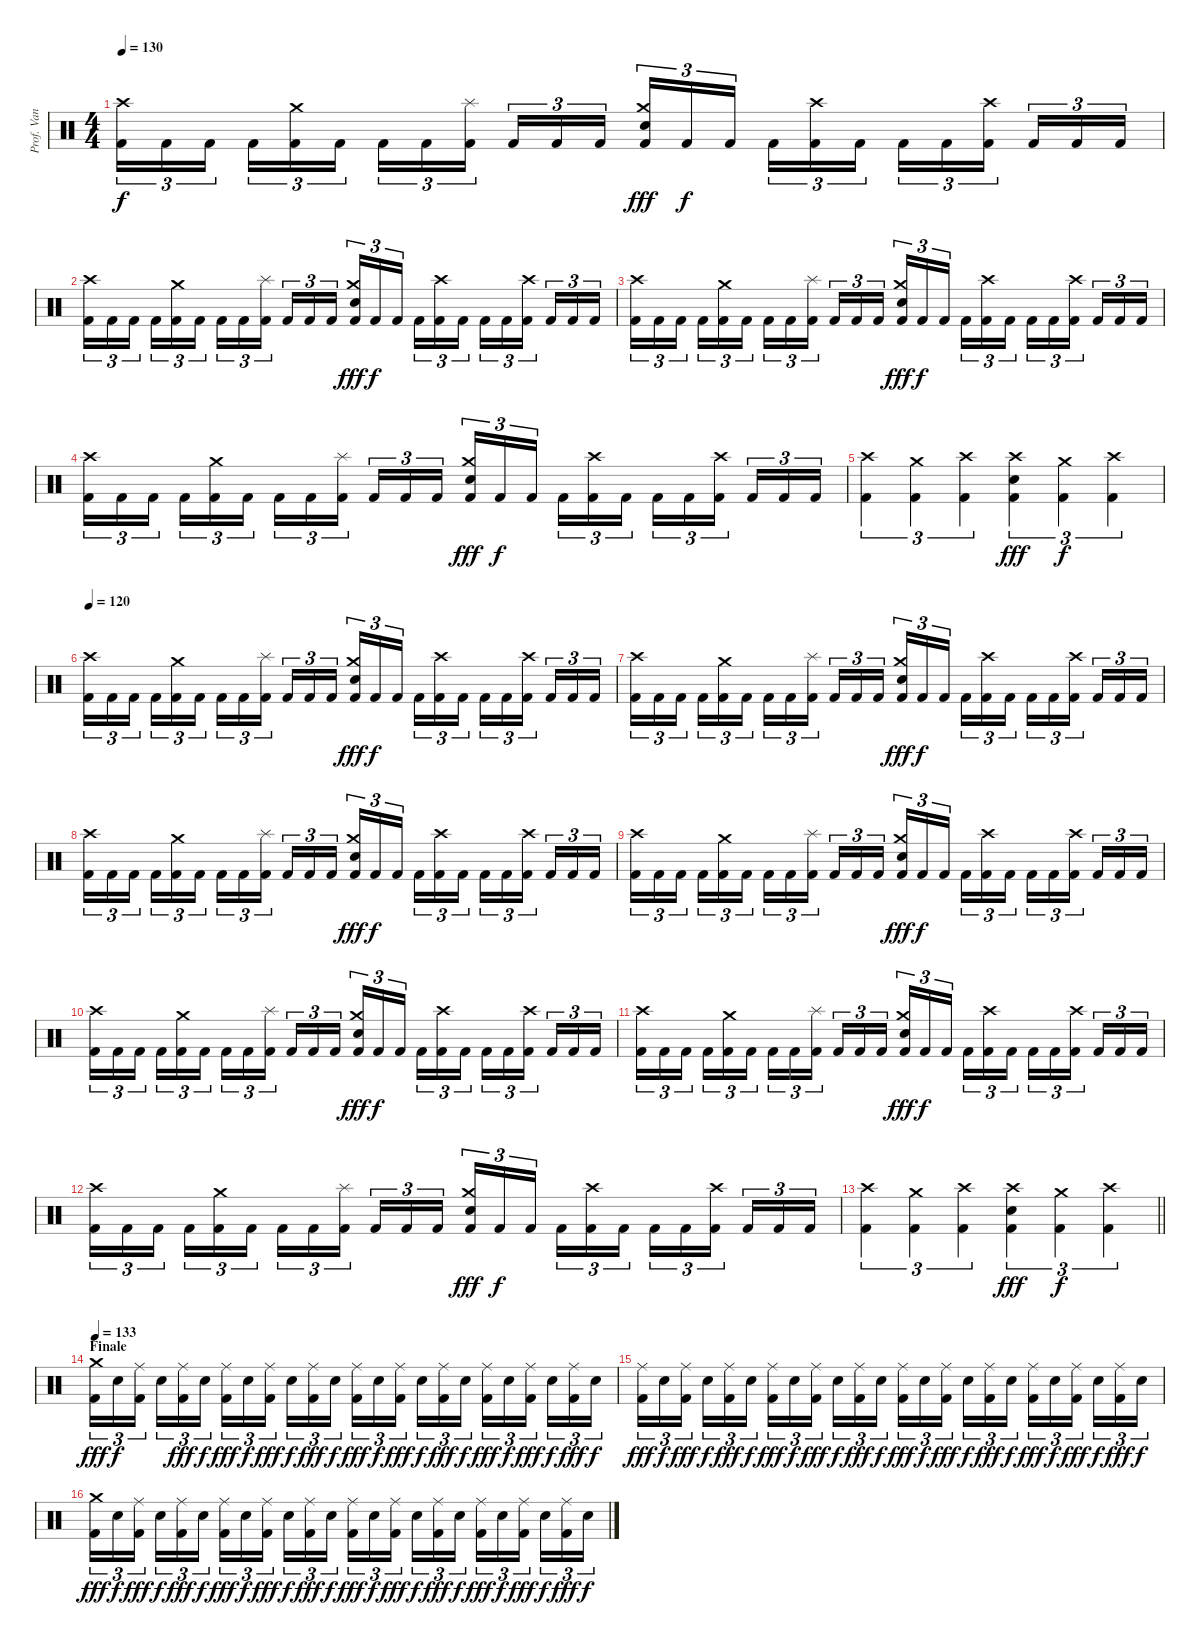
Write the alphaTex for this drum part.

\track ("Prof. Van Helsing (Drums)" "Prof. Van ") {instrument percussion}
\staff {score}
\articulation defaults
\ts (4 4)
\tempo 130
\clef neutral
\ks c
("Crash high (hit)" "Kick (hit) 2").16{tu (3 2) dy f} "Kick (hit) 2".16{tu (3 2)} "Kick (hit) 2".16{tu (3 2) beam splitsecondary} "Kick (hit) 2".16{tu (3 2)} ("Crash medium (hit)" "Kick (hit) 2").16{tu (3 2)} "Kick (hit) 2".16{tu (3 2)} "Kick (hit) 2".16{tu (3 2)} "Kick (hit) 2".16{tu (3 2)} ("Splash (hit)" "Kick (hit) 2").16{tu (3 2) beam splitsecondary} "Kick (hit) 2".16{tu (3 2)} "Kick (hit) 2".16{tu (3 2)} "Kick (hit) 2".16{tu (3 2)} ("Crash medium (hit)" "Snare (hit) 2" "Kick (hit) 2").16{tu (3 2) dy fff} "Kick (hit) 2".16{tu (3 2) dy f} "Kick (hit) 2".16{tu (3 2) beam splitsecondary} "Kick (hit) 2".16{tu (3 2)} ("Crash high (hit)" "Kick (hit) 2").16{tu (3 2)} "Kick (hit) 2".16{tu (3 2)} "Kick (hit) 2".16{tu (3 2)} "Kick (hit) 2".16{tu (3 2)} ("Crash high (hit)" "Kick (hit) 2").16{tu (3 2) beam splitsecondary} "Kick (hit) 2".16{tu (3 2)} "Kick (hit) 2".16{tu (3 2)} "Kick (hit) 2".16{tu (3 2)} |
("Crash high (hit)" "Kick (hit) 2").16{tu (3 2)} "Kick (hit) 2".16{tu (3 2)} "Kick (hit) 2".16{tu (3 2) beam splitsecondary} "Kick (hit) 2".16{tu (3 2)} ("Crash medium (hit)" "Kick (hit) 2").16{tu (3 2)} "Kick (hit) 2".16{tu (3 2)} "Kick (hit) 2".16{tu (3 2)} "Kick (hit) 2".16{tu (3 2)} ("Splash (hit)" "Kick (hit) 2").16{tu (3 2) beam splitsecondary} "Kick (hit) 2".16{tu (3 2)} "Kick (hit) 2".16{tu (3 2)} "Kick (hit) 2".16{tu (3 2)} ("Crash medium (hit)" "Snare (hit) 2" "Kick (hit) 2").16{tu (3 2) dy fff} "Kick (hit) 2".16{tu (3 2) dy f} "Kick (hit) 2".16{tu (3 2) beam splitsecondary} "Kick (hit) 2".16{tu (3 2)} ("Crash high (hit)" "Kick (hit) 2").16{tu (3 2)} "Kick (hit) 2".16{tu (3 2)} "Kick (hit) 2".16{tu (3 2)} "Kick (hit) 2".16{tu (3 2)} ("Crash high (hit)" "Kick (hit) 2").16{tu (3 2) beam splitsecondary} "Kick (hit) 2".16{tu (3 2)} "Kick (hit) 2".16{tu (3 2)} "Kick (hit) 2".16{tu (3 2)} |
("Crash high (hit)" "Kick (hit) 2").16{tu (3 2)} "Kick (hit) 2".16{tu (3 2)} "Kick (hit) 2".16{tu (3 2) beam splitsecondary} "Kick (hit) 2".16{tu (3 2)} ("Crash medium (hit)" "Kick (hit) 2").16{tu (3 2)} "Kick (hit) 2".16{tu (3 2)} "Kick (hit) 2".16{tu (3 2)} "Kick (hit) 2".16{tu (3 2)} ("Splash (hit)" "Kick (hit) 2").16{tu (3 2) beam splitsecondary} "Kick (hit) 2".16{tu (3 2)} "Kick (hit) 2".16{tu (3 2)} "Kick (hit) 2".16{tu (3 2)} ("Crash medium (hit)" "Snare (hit) 2" "Kick (hit) 2").16{tu (3 2) dy fff} "Kick (hit) 2".16{tu (3 2) dy f} "Kick (hit) 2".16{tu (3 2) beam splitsecondary} "Kick (hit) 2".16{tu (3 2)} ("Crash high (hit)" "Kick (hit) 2").16{tu (3 2)} "Kick (hit) 2".16{tu (3 2)} "Kick (hit) 2".16{tu (3 2)} "Kick (hit) 2".16{tu (3 2)} ("Crash high (hit)" "Kick (hit) 2").16{tu (3 2) beam splitsecondary} "Kick (hit) 2".16{tu (3 2)} "Kick (hit) 2".16{tu (3 2)} "Kick (hit) 2".16{tu (3 2)} |
("Crash high (hit)" "Kick (hit) 2").16{tu (3 2)} "Kick (hit) 2".16{tu (3 2)} "Kick (hit) 2".16{tu (3 2) beam splitsecondary} "Kick (hit) 2".16{tu (3 2)} ("Crash medium (hit)" "Kick (hit) 2").16{tu (3 2)} "Kick (hit) 2".16{tu (3 2)} "Kick (hit) 2".16{tu (3 2)} "Kick (hit) 2".16{tu (3 2)} ("Splash (hit)" "Kick (hit) 2").16{tu (3 2) beam splitsecondary} "Kick (hit) 2".16{tu (3 2)} "Kick (hit) 2".16{tu (3 2)} "Kick (hit) 2".16{tu (3 2)} ("Crash medium (hit)" "Snare (hit) 2" "Kick (hit) 2").16{tu (3 2) dy fff} "Kick (hit) 2".16{tu (3 2) dy f} "Kick (hit) 2".16{tu (3 2) beam splitsecondary} "Kick (hit) 2".16{tu (3 2)} ("Crash high (hit)" "Kick (hit) 2").16{tu (3 2)} "Kick (hit) 2".16{tu (3 2)} "Kick (hit) 2".16{tu (3 2)} "Kick (hit) 2".16{tu (3 2)} ("Crash high (hit)" "Kick (hit) 2").16{tu (3 2) beam splitsecondary} "Kick (hit) 2".16{tu (3 2)} "Kick (hit) 2".16{tu (3 2)} "Kick (hit) 2".16{tu (3 2)} |
("Crash high (hit)" "Kick (hit) 2").4{tu (3 2)} ("Crash medium (hit)" "Kick (hit) 2").4{tu (3 2)} ("Crash high (hit)" "Kick (hit) 2").4{tu (3 2)} ("Crash high (hit)" "Snare (hit) 2" "Kick (hit) 2").4{tu (3 2) dy fff} ("Crash medium (hit)" "Kick (hit) 2").4{tu (3 2) dy f} ("Crash high (hit)" "Kick (hit) 2").4{tu (3 2)} |
\tempo 120
("Crash high (hit)" "Kick (hit) 2").16{tu (3 2)} "Kick (hit) 2".16{tu (3 2)} "Kick (hit) 2".16{tu (3 2) beam splitsecondary} "Kick (hit) 2".16{tu (3 2)} ("Crash medium (hit)" "Kick (hit) 2").16{tu (3 2)} "Kick (hit) 2".16{tu (3 2)} "Kick (hit) 2".16{tu (3 2)} "Kick (hit) 2".16{tu (3 2)} ("Splash (hit)" "Kick (hit) 2").16{tu (3 2) beam splitsecondary} "Kick (hit) 2".16{tu (3 2)} "Kick (hit) 2".16{tu (3 2)} "Kick (hit) 2".16{tu (3 2)} ("Crash medium (hit)" "Snare (hit) 2" "Kick (hit) 2").16{tu (3 2) dy fff} "Kick (hit) 2".16{tu (3 2) dy f} "Kick (hit) 2".16{tu (3 2) beam splitsecondary} "Kick (hit) 2".16{tu (3 2)} ("Crash high (hit)" "Kick (hit) 2").16{tu (3 2)} "Kick (hit) 2".16{tu (3 2)} "Kick (hit) 2".16{tu (3 2)} "Kick (hit) 2".16{tu (3 2)} ("Crash high (hit)" "Kick (hit) 2").16{tu (3 2) beam splitsecondary} "Kick (hit) 2".16{tu (3 2)} "Kick (hit) 2".16{tu (3 2)} "Kick (hit) 2".16{tu (3 2)} |
("Crash high (hit)" "Kick (hit) 2").16{tu (3 2)} "Kick (hit) 2".16{tu (3 2)} "Kick (hit) 2".16{tu (3 2) beam splitsecondary} "Kick (hit) 2".16{tu (3 2)} ("Crash medium (hit)" "Kick (hit) 2").16{tu (3 2)} "Kick (hit) 2".16{tu (3 2)} "Kick (hit) 2".16{tu (3 2)} "Kick (hit) 2".16{tu (3 2)} ("Splash (hit)" "Kick (hit) 2").16{tu (3 2) beam splitsecondary} "Kick (hit) 2".16{tu (3 2)} "Kick (hit) 2".16{tu (3 2)} "Kick (hit) 2".16{tu (3 2)} ("Crash medium (hit)" "Snare (hit) 2" "Kick (hit) 2").16{tu (3 2) dy fff} "Kick (hit) 2".16{tu (3 2) dy f} "Kick (hit) 2".16{tu (3 2) beam splitsecondary} "Kick (hit) 2".16{tu (3 2)} ("Crash high (hit)" "Kick (hit) 2").16{tu (3 2)} "Kick (hit) 2".16{tu (3 2)} "Kick (hit) 2".16{tu (3 2)} "Kick (hit) 2".16{tu (3 2)} ("Crash high (hit)" "Kick (hit) 2").16{tu (3 2) beam splitsecondary} "Kick (hit) 2".16{tu (3 2)} "Kick (hit) 2".16{tu (3 2)} "Kick (hit) 2".16{tu (3 2)} |
("Crash high (hit)" "Kick (hit) 2").16{tu (3 2)} "Kick (hit) 2".16{tu (3 2)} "Kick (hit) 2".16{tu (3 2) beam splitsecondary} "Kick (hit) 2".16{tu (3 2)} ("Crash medium (hit)" "Kick (hit) 2").16{tu (3 2)} "Kick (hit) 2".16{tu (3 2)} "Kick (hit) 2".16{tu (3 2)} "Kick (hit) 2".16{tu (3 2)} ("Splash (hit)" "Kick (hit) 2").16{tu (3 2) beam splitsecondary} "Kick (hit) 2".16{tu (3 2)} "Kick (hit) 2".16{tu (3 2)} "Kick (hit) 2".16{tu (3 2)} ("Crash medium (hit)" "Snare (hit) 2" "Kick (hit) 2").16{tu (3 2) dy fff} "Kick (hit) 2".16{tu (3 2) dy f} "Kick (hit) 2".16{tu (3 2) beam splitsecondary} "Kick (hit) 2".16{tu (3 2)} ("Crash high (hit)" "Kick (hit) 2").16{tu (3 2)} "Kick (hit) 2".16{tu (3 2)} "Kick (hit) 2".16{tu (3 2)} "Kick (hit) 2".16{tu (3 2)} ("Crash high (hit)" "Kick (hit) 2").16{tu (3 2) beam splitsecondary} "Kick (hit) 2".16{tu (3 2)} "Kick (hit) 2".16{tu (3 2)} "Kick (hit) 2".16{tu (3 2)} |
("Crash high (hit)" "Kick (hit) 2").16{tu (3 2)} "Kick (hit) 2".16{tu (3 2)} "Kick (hit) 2".16{tu (3 2) beam splitsecondary} "Kick (hit) 2".16{tu (3 2)} ("Crash medium (hit)" "Kick (hit) 2").16{tu (3 2)} "Kick (hit) 2".16{tu (3 2)} "Kick (hit) 2".16{tu (3 2)} "Kick (hit) 2".16{tu (3 2)} ("Splash (hit)" "Kick (hit) 2").16{tu (3 2) beam splitsecondary} "Kick (hit) 2".16{tu (3 2)} "Kick (hit) 2".16{tu (3 2)} "Kick (hit) 2".16{tu (3 2)} ("Crash medium (hit)" "Snare (hit) 2" "Kick (hit) 2").16{tu (3 2) dy fff} "Kick (hit) 2".16{tu (3 2) dy f} "Kick (hit) 2".16{tu (3 2) beam splitsecondary} "Kick (hit) 2".16{tu (3 2)} ("Crash high (hit)" "Kick (hit) 2").16{tu (3 2)} "Kick (hit) 2".16{tu (3 2)} "Kick (hit) 2".16{tu (3 2)} "Kick (hit) 2".16{tu (3 2)} ("Crash high (hit)" "Kick (hit) 2").16{tu (3 2) beam splitsecondary} "Kick (hit) 2".16{tu (3 2)} "Kick (hit) 2".16{tu (3 2)} "Kick (hit) 2".16{tu (3 2)} |
("Crash high (hit)" "Kick (hit) 2").16{tu (3 2)} "Kick (hit) 2".16{tu (3 2)} "Kick (hit) 2".16{tu (3 2) beam splitsecondary} "Kick (hit) 2".16{tu (3 2)} ("Crash medium (hit)" "Kick (hit) 2").16{tu (3 2)} "Kick (hit) 2".16{tu (3 2)} "Kick (hit) 2".16{tu (3 2)} "Kick (hit) 2".16{tu (3 2)} ("Splash (hit)" "Kick (hit) 2").16{tu (3 2) beam splitsecondary} "Kick (hit) 2".16{tu (3 2)} "Kick (hit) 2".16{tu (3 2)} "Kick (hit) 2".16{tu (3 2)} ("Crash medium (hit)" "Snare (hit) 2" "Kick (hit) 2").16{tu (3 2) dy fff} "Kick (hit) 2".16{tu (3 2) dy f} "Kick (hit) 2".16{tu (3 2) beam splitsecondary} "Kick (hit) 2".16{tu (3 2)} ("Crash high (hit)" "Kick (hit) 2").16{tu (3 2)} "Kick (hit) 2".16{tu (3 2)} "Kick (hit) 2".16{tu (3 2)} "Kick (hit) 2".16{tu (3 2)} ("Crash high (hit)" "Kick (hit) 2").16{tu (3 2) beam splitsecondary} "Kick (hit) 2".16{tu (3 2)} "Kick (hit) 2".16{tu (3 2)} "Kick (hit) 2".16{tu (3 2)} |
("Crash high (hit)" "Kick (hit) 2").16{tu (3 2)} "Kick (hit) 2".16{tu (3 2)} "Kick (hit) 2".16{tu (3 2) beam splitsecondary} "Kick (hit) 2".16{tu (3 2)} ("Crash medium (hit)" "Kick (hit) 2").16{tu (3 2)} "Kick (hit) 2".16{tu (3 2)} "Kick (hit) 2".16{tu (3 2)} "Kick (hit) 2".16{tu (3 2)} ("Splash (hit)" "Kick (hit) 2").16{tu (3 2) beam splitsecondary} "Kick (hit) 2".16{tu (3 2)} "Kick (hit) 2".16{tu (3 2)} "Kick (hit) 2".16{tu (3 2)} ("Crash medium (hit)" "Snare (hit) 2" "Kick (hit) 2").16{tu (3 2) dy fff} "Kick (hit) 2".16{tu (3 2) dy f} "Kick (hit) 2".16{tu (3 2) beam splitsecondary} "Kick (hit) 2".16{tu (3 2)} ("Crash high (hit)" "Kick (hit) 2").16{tu (3 2)} "Kick (hit) 2".16{tu (3 2)} "Kick (hit) 2".16{tu (3 2)} "Kick (hit) 2".16{tu (3 2)} ("Crash high (hit)" "Kick (hit) 2").16{tu (3 2) beam splitsecondary} "Kick (hit) 2".16{tu (3 2)} "Kick (hit) 2".16{tu (3 2)} "Kick (hit) 2".16{tu (3 2)} |
("Crash high (hit)" "Kick (hit) 2").16{tu (3 2)} "Kick (hit) 2".16{tu (3 2)} "Kick (hit) 2".16{tu (3 2) beam splitsecondary} "Kick (hit) 2".16{tu (3 2)} ("Crash medium (hit)" "Kick (hit) 2").16{tu (3 2)} "Kick (hit) 2".16{tu (3 2)} "Kick (hit) 2".16{tu (3 2)} "Kick (hit) 2".16{tu (3 2)} ("Splash (hit)" "Kick (hit) 2").16{tu (3 2) beam splitsecondary} "Kick (hit) 2".16{tu (3 2)} "Kick (hit) 2".16{tu (3 2)} "Kick (hit) 2".16{tu (3 2)} ("Crash medium (hit)" "Snare (hit) 2" "Kick (hit) 2").16{tu (3 2) dy fff} "Kick (hit) 2".16{tu (3 2) dy f} "Kick (hit) 2".16{tu (3 2) beam splitsecondary} "Kick (hit) 2".16{tu (3 2)} ("Crash high (hit)" "Kick (hit) 2").16{tu (3 2)} "Kick (hit) 2".16{tu (3 2)} "Kick (hit) 2".16{tu (3 2)} "Kick (hit) 2".16{tu (3 2)} ("Crash high (hit)" "Kick (hit) 2").16{tu (3 2) beam splitsecondary} "Kick (hit) 2".16{tu (3 2)} "Kick (hit) 2".16{tu (3 2)} "Kick (hit) 2".16{tu (3 2)} |
\barLineRight lightlight
("Crash high (hit)" "Kick (hit) 2").4{tu (3 2)} ("Crash medium (hit)" "Kick (hit) 2").4{tu (3 2)} ("Crash high (hit)" "Kick (hit) 2").4{tu (3 2)} ("Crash high (hit)" "Snare (hit) 2" "Kick (hit) 2").4{tu (3 2) dy fff} ("Crash medium (hit)" "Kick (hit) 2").4{tu (3 2) dy f} ("Crash high (hit)" "Kick (hit) 2").4{tu (3 2)} |
\section ("" "Finale")
\tempo 133
("Crash medium (hit)" "Kick (hit) 2").16{tu (3 2) dy fff} "Snare (hit) 2".16{tu (3 2) dy f} ("Ride (middle)" "Kick (hit) 2").16{tu (3 2) beam splitsecondary} "Snare (hit) 2".16{tu (3 2)} ("Ride (middle)" "Kick (hit) 2").16{tu (3 2) dy fff} "Snare (hit) 2".16{tu (3 2) dy f} ("Ride (middle)" "Kick (hit) 2").16{tu (3 2) dy fff} "Snare (hit) 2".16{tu (3 2) dy f} ("Ride (middle)" "Kick (hit) 2").16{tu (3 2) dy fff beam splitsecondary} "Snare (hit) 2".16{tu (3 2) dy f} ("Ride (middle)" "Kick (hit) 2").16{tu (3 2) dy fff} "Snare (hit) 2".16{tu (3 2) dy f} ("Ride (middle)" "Kick (hit) 2").16{tu (3 2) dy fff} "Snare (hit) 2".16{tu (3 2) dy f} ("Ride (middle)" "Kick (hit) 2").16{tu (3 2) dy fff beam splitsecondary} "Snare (hit) 2".16{tu (3 2) dy f} ("Ride (middle)" "Kick (hit) 2").16{tu (3 2) dy fff} "Snare (hit) 2".16{tu (3 2) dy f} ("Ride (middle)" "Kick (hit) 2").16{tu (3 2) dy fff} "Snare (hit) 2".16{tu (3 2) dy f} ("Ride (middle)" "Kick (hit) 2").16{tu (3 2) dy fff beam splitsecondary} "Snare (hit) 2".16{tu (3 2) dy f} ("Ride (middle)" "Kick (hit) 2").16{tu (3 2) dy fff} "Snare (hit) 2".16{tu (3 2) dy f} |
("Ride (middle)" "Kick (hit) 2").16{tu (3 2) dy fff} "Snare (hit) 2".16{tu (3 2) dy f} ("Ride (middle)" "Kick (hit) 2").16{tu (3 2) dy fff beam splitsecondary} "Snare (hit) 2".16{tu (3 2) dy f} ("Ride (middle)" "Kick (hit) 2").16{tu (3 2) dy fff} "Snare (hit) 2".16{tu (3 2) dy f} ("Ride (middle)" "Kick (hit) 2").16{tu (3 2) dy fff} "Snare (hit) 2".16{tu (3 2) dy f} ("Ride (middle)" "Kick (hit) 2").16{tu (3 2) dy fff beam splitsecondary} "Snare (hit) 2".16{tu (3 2) dy f} ("Ride (middle)" "Kick (hit) 2").16{tu (3 2) dy fff} "Snare (hit) 2".16{tu (3 2) dy f} ("Ride (middle)" "Kick (hit) 2").16{tu (3 2) dy fff} "Snare (hit) 2".16{tu (3 2) dy f} ("Ride (middle)" "Kick (hit) 2").16{tu (3 2) dy fff beam splitsecondary} "Snare (hit) 2".16{tu (3 2) dy f} ("Ride (middle)" "Kick (hit) 2").16{tu (3 2) dy fff} "Snare (hit) 2".16{tu (3 2) dy f} ("Ride (middle)" "Kick (hit) 2").16{tu (3 2) dy fff} "Snare (hit) 2".16{tu (3 2) dy f} ("Ride (middle)" "Kick (hit) 2").16{tu (3 2) dy fff beam splitsecondary} "Snare (hit) 2".16{tu (3 2) dy f} ("Ride (middle)" "Kick (hit) 2").16{tu (3 2) dy fff} "Snare (hit) 2".16{tu (3 2) dy f} |
("Crash medium (hit)" "Kick (hit) 2").16{tu (3 2) dy fff} "Snare (hit) 2".16{tu (3 2) dy f} ("Ride (middle)" "Kick (hit) 2").16{tu (3 2) dy fff beam splitsecondary} "Snare (hit) 2".16{tu (3 2) dy f} ("Ride (middle)" "Kick (hit) 2").16{tu (3 2) dy fff} "Snare (hit) 2".16{tu (3 2) dy f} ("Ride (middle)" "Kick (hit) 2").16{tu (3 2) dy fff} "Snare (hit) 2".16{tu (3 2) dy f} ("Ride (middle)" "Kick (hit) 2").16{tu (3 2) dy fff beam splitsecondary} "Snare (hit) 2".16{tu (3 2) dy f} ("Ride (middle)" "Kick (hit) 2").16{tu (3 2) dy fff} "Snare (hit) 2".16{tu (3 2) dy f} ("Ride (middle)" "Kick (hit) 2").16{tu (3 2) dy fff} "Snare (hit) 2".16{tu (3 2) dy f} ("Ride (middle)" "Kick (hit) 2").16{tu (3 2) dy fff beam splitsecondary} "Snare (hit) 2".16{tu (3 2) dy f} ("Ride (middle)" "Kick (hit) 2").16{tu (3 2) dy fff} "Snare (hit) 2".16{tu (3 2) dy f} ("Ride (middle)" "Kick (hit) 2").16{tu (3 2) dy fff} "Snare (hit) 2".16{tu (3 2) dy f} ("Ride (middle)" "Kick (hit) 2").16{tu (3 2) dy fff beam splitsecondary} "Snare (hit) 2".16{tu (3 2) dy f} ("Ride (middle)" "Kick (hit) 2").16{tu (3 2) dy fff} "Snare (hit) 2".16{tu (3 2) dy f}
